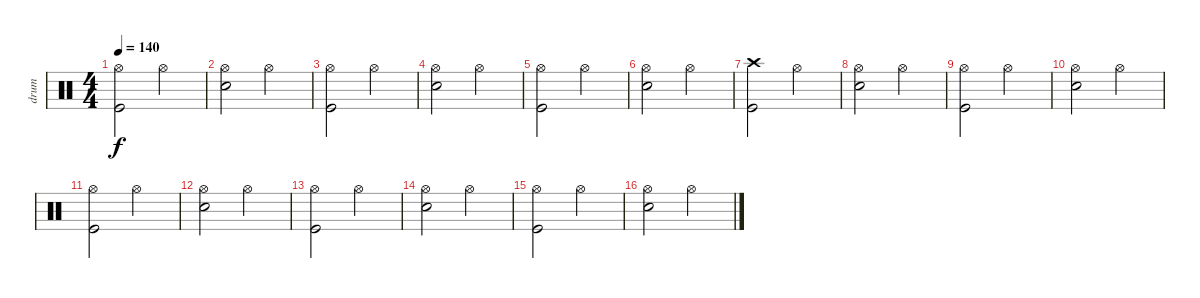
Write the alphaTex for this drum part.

\track ("drum" "drum") {instrument percussion}
\staff {score}
\articulation defaults
\ts (4 4)
\tempo 140
\clef neutral
\ks c
("Hi-Hat (open)" "Kick (hit)").2{dy f} "Hi-Hat (open)".2 |
("Hi-Hat (open)" "Snare (hit) 2").2 "Hi-Hat (open)".2 |
("Hi-Hat (open)" "Kick (hit)").2 "Hi-Hat (open)".2 |
("Hi-Hat (open)" "Snare (hit) 2").2 "Hi-Hat (open)".2 |
("Hi-Hat (open)" "Kick (hit)").2 "Hi-Hat (open)".2 |
("Hi-Hat (open)" "Snare (hit) 2").2 "Hi-Hat (open)".2 |
("Crash high (hit)" "Kick (hit)").2 "Hi-Hat (open)".2 |
("Hi-Hat (open)" "Snare (hit) 2").2 "Hi-Hat (open)".2 |
("Hi-Hat (open)" "Kick (hit)").2 "Hi-Hat (open)".2 |
("Hi-Hat (open)" "Snare (hit) 2").2 "Hi-Hat (open)".2 |
("Hi-Hat (open)" "Kick (hit)").2 "Hi-Hat (open)".2 |
("Hi-Hat (open)" "Snare (hit) 2").2 "Hi-Hat (open)".2 |
("Hi-Hat (open)" "Kick (hit)").2 "Hi-Hat (open)".2 |
("Hi-Hat (open)" "Snare (hit) 2").2 "Hi-Hat (open)".2 |
("Hi-Hat (open)" "Kick (hit)").2 "Hi-Hat (open)".2 |
("Hi-Hat (open)" "Snare (hit) 2").2 "Hi-Hat (open)".2
